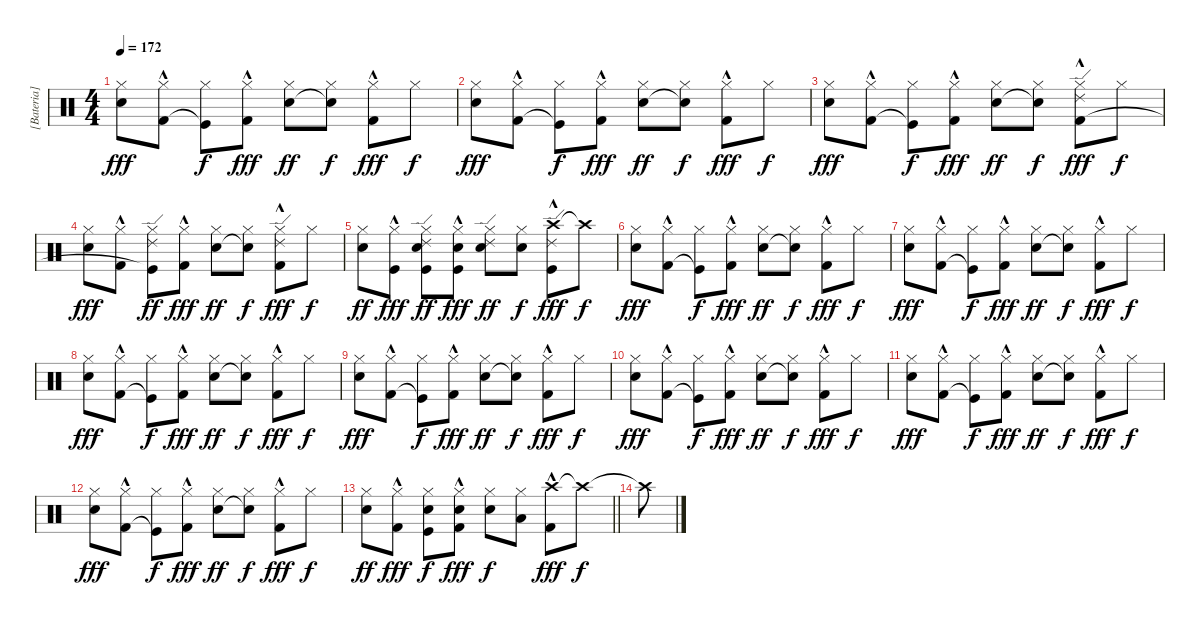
\track ("[Bateria]" "[Bateria]") {instrument percussion}
\staff {score}
\articulation defaults
\ts (4 4)
\tempo 172
\clef neutral
\ks c
("Hi-Hat (closed)" "Electric Snare (hit)").8{dy fff} ("Hi-Hat (closed)" "Kick (hit) 2"{hac}).8 ("Hi-Hat (closed)" "Kick (hit)"{t}).8{dy f} ("Hi-Hat (closed)" "Kick (hit) 2"{hac}).8{dy fff} ("Hi-Hat (closed)" "Electric Snare (hit)").8{dy ff} ("Hi-Hat (closed)" "Electric Snare (hit)"{t}).8{dy f} ("Hi-Hat (closed)" "Kick (hit) 2"{hac}).8{dy fff} "Hi-Hat (closed)".8{dy f} |
("Hi-Hat (closed)" "Electric Snare (hit)").8{dy fff} ("Hi-Hat (closed)" "Kick (hit) 2"{hac}).8 ("Hi-Hat (closed)" "Kick (hit)"{t}).8{dy f} ("Hi-Hat (closed)" "Kick (hit) 2"{hac}).8{dy fff} ("Hi-Hat (closed)" "Electric Snare (hit)").8{dy ff} ("Hi-Hat (closed)" "Electric Snare (hit)"{t}).8{dy f} ("Hi-Hat (closed)" "Kick (hit) 2"{hac}).8{dy fff} "Hi-Hat (closed)".8{dy f} |
("Hi-Hat (closed)" "Electric Snare (hit)").8{dy fff} ("Hi-Hat (closed)" "Kick (hit) 2"{hac}).8 ("Hi-Hat (closed)" "Kick (hit)"{t}).8{dy f} ("Hi-Hat (closed)" "Kick (hit) 2"{hac}).8{dy fff} ("Hi-Hat (closed)" "Electric Snare (hit)").8{dy ff} ("Hi-Hat (closed)" "Electric Snare (hit)"{t}).8{dy f} ("Hi-Hat (closed)" "Ride (edge) 2" "Kick (hit) 2"{hac}).8{dy fff} "Hi-Hat (closed)".8{dy f} |
("Hi-Hat (closed)" "Electric Snare (hit)").8{dy fff} ("Hi-Hat (closed)" "Kick (hit) 2"{hac}).8 ("Hi-Hat (closed)" "Ride (edge) 2" "Kick (hit)"{t}).8{dy ff} ("Hi-Hat (closed)" "Kick (hit) 2"{hac}).8{dy fff} ("Hi-Hat (closed)" "Electric Snare (hit)").8{dy ff} ("Hi-Hat (closed)" "Electric Snare (hit)"{t}).8{dy f} ("Hi-Hat (closed)" "Ride (edge) 2" "Kick (hit) 2"{hac}).8{dy fff} "Hi-Hat (closed)".8{dy f} |
("Hi-Hat (closed)" "Electric Snare (hit)").8{dy ff} ("Hi-Hat (closed)" "Kick (hit)"{hac}).8{dy fff} ("Hi-Hat (closed)" "Ride (edge) 2" "Electric Snare (hit)" "Kick (hit)").8{dy ff} ("Hi-Hat (closed)" "Electric Snare (hit)" "Kick (hit)"{hac}).8{dy fff} ("Hi-Hat (closed)" "Ride (edge) 2" "Electric Snare (hit)").8{dy ff} ("Hi-Hat (closed)" "Electric Snare (hit)").8{dy f} ("Crash high (hit)" "Ride (edge) 2" "Kick (hit)"{hac}).8{dy fff} "Crash high (hit)"{t}.8{dy f} |
("Hi-Hat (closed)" "Electric Snare (hit)").8{dy fff} ("Hi-Hat (closed)" "Kick (hit) 2"{hac}).8 ("Hi-Hat (closed)" "Kick (hit)"{t}).8{dy f} ("Hi-Hat (closed)" "Kick (hit) 2"{hac}).8{dy fff} ("Hi-Hat (closed)" "Electric Snare (hit)").8{dy ff} ("Hi-Hat (closed)" "Electric Snare (hit)"{t}).8{dy f} ("Hi-Hat (closed)" "Kick (hit) 2"{hac}).8{dy fff} "Hi-Hat (closed)".8{dy f} |
("Hi-Hat (closed)" "Electric Snare (hit)").8{dy fff} ("Hi-Hat (closed)" "Kick (hit) 2"{hac}).8 ("Hi-Hat (closed)" "Kick (hit)"{t}).8{dy f} ("Hi-Hat (closed)" "Kick (hit) 2"{hac}).8{dy fff} ("Hi-Hat (closed)" "Electric Snare (hit)").8{dy ff} ("Hi-Hat (closed)" "Electric Snare (hit)"{t}).8{dy f} ("Hi-Hat (closed)" "Kick (hit) 2"{hac}).8{dy fff} "Hi-Hat (closed)".8{dy f} |
("Hi-Hat (closed)" "Electric Snare (hit)").8{dy fff} ("Hi-Hat (closed)" "Kick (hit) 2"{hac}).8 ("Hi-Hat (closed)" "Kick (hit)"{t}).8{dy f} ("Hi-Hat (closed)" "Kick (hit) 2"{hac}).8{dy fff} ("Hi-Hat (closed)" "Electric Snare (hit)").8{dy ff} ("Hi-Hat (closed)" "Electric Snare (hit)"{t}).8{dy f} ("Hi-Hat (closed)" "Kick (hit) 2"{hac}).8{dy fff} "Hi-Hat (closed)".8{dy f} |
("Hi-Hat (closed)" "Electric Snare (hit)").8{dy fff} ("Hi-Hat (closed)" "Kick (hit) 2"{hac}).8 ("Hi-Hat (closed)" "Kick (hit)"{t}).8{dy f} ("Hi-Hat (closed)" "Kick (hit) 2"{hac}).8{dy fff} ("Hi-Hat (closed)" "Electric Snare (hit)").8{dy ff} ("Hi-Hat (closed)" "Electric Snare (hit)"{t}).8{dy f} ("Hi-Hat (closed)" "Kick (hit) 2"{hac}).8{dy fff} "Hi-Hat (closed)".8{dy f} |
("Hi-Hat (closed)" "Electric Snare (hit)").8{dy fff} ("Hi-Hat (closed)" "Kick (hit) 2"{hac}).8 ("Hi-Hat (closed)" "Kick (hit)"{t}).8{dy f} ("Hi-Hat (closed)" "Kick (hit) 2"{hac}).8{dy fff} ("Hi-Hat (closed)" "Electric Snare (hit)").8{dy ff} ("Hi-Hat (closed)" "Electric Snare (hit)"{t}).8{dy f} ("Hi-Hat (closed)" "Kick (hit) 2"{hac}).8{dy fff} "Hi-Hat (closed)".8{dy f} |
("Hi-Hat (closed)" "Electric Snare (hit)").8{dy fff} ("Hi-Hat (closed)" "Kick (hit) 2"{hac}).8 ("Hi-Hat (closed)" "Kick (hit)"{t}).8{dy f} ("Hi-Hat (closed)" "Kick (hit) 2"{hac}).8{dy fff} ("Hi-Hat (closed)" "Electric Snare (hit)").8{dy ff} ("Hi-Hat (closed)" "Electric Snare (hit)"{t}).8{dy f} ("Hi-Hat (closed)" "Kick (hit) 2"{hac}).8{dy fff} "Hi-Hat (closed)".8{dy f} |
("Hi-Hat (closed)" "Electric Snare (hit)").8{dy fff} ("Hi-Hat (closed)" "Kick (hit) 2"{hac}).8 ("Hi-Hat (closed)" "Kick (hit)"{t}).8{dy f} ("Hi-Hat (closed)" "Kick (hit) 2"{hac}).8{dy fff} ("Hi-Hat (closed)" "Electric Snare (hit)").8{dy ff} ("Hi-Hat (closed)" "Electric Snare (hit)"{t}).8{dy f} ("Hi-Hat (closed)" "Kick (hit) 2"{hac}).8{dy fff} "Hi-Hat (closed)".8{dy f} |
\barLineRight lightlight
("Hi-Hat (closed)" "Electric Snare (hit)").8{dy ff} ("Hi-Hat (closed)" "Kick (hit) 2"{hac}).8{dy fff} ("Hi-Hat (closed)" "Electric Snare (hit)" "Kick (hit)").8{dy f} ("Hi-Hat (closed)" "Electric Snare (hit)" "Kick (hit) 2"{hac}).8{dy fff} ("Hi-Hat (closed)" "Electric Snare (hit)").8{dy f} ("Hi-Hat (closed)" "Low Floor Tom (hit)").8 ("Crash high (hit)" "Kick (hit) 2"{hac}).8{dy fff} "Crash high (hit)"{t}.8{dy f} |
"Crash high (hit)"{t}.8
